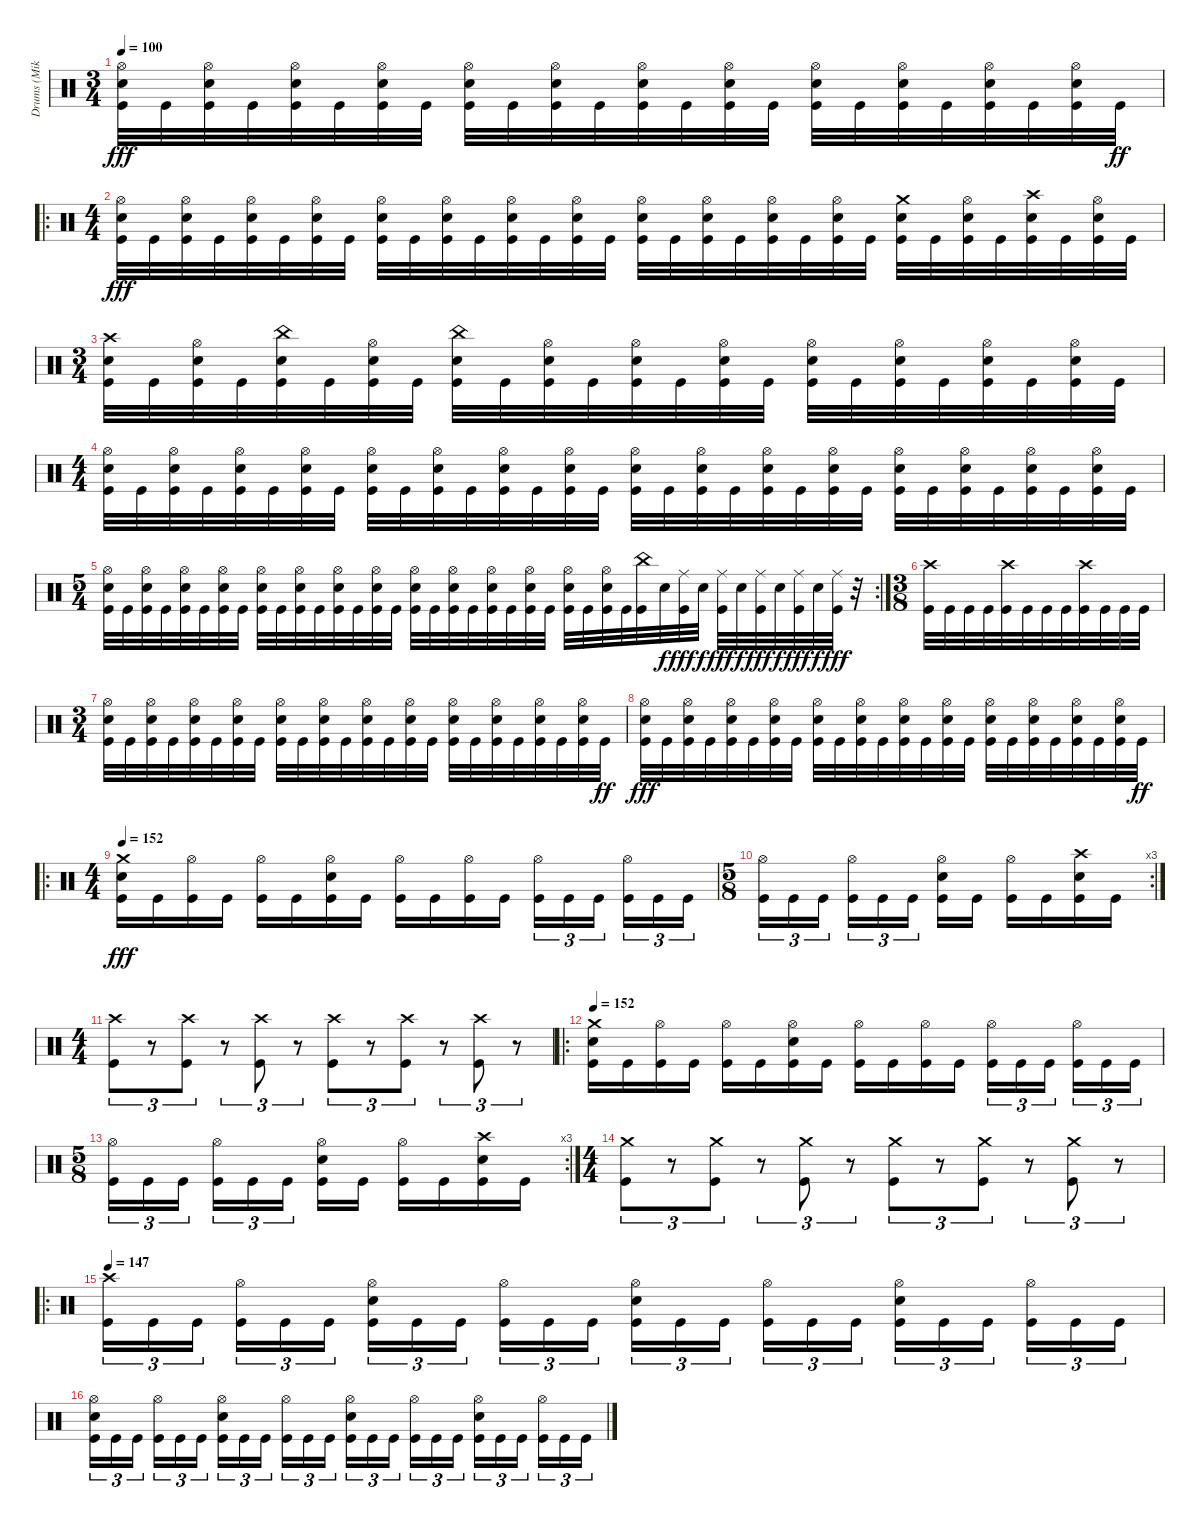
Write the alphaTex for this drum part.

\track ("Drums (Mike)" "Drums (Mik") {instrument percussion}
\staff {score}
\articulation defaults
\ts (3 4)
\tempo 100
\clef neutral
\ks c
("Hi-Hat (open)" "Electric Snare (hit)" "Kick (hit)").32{dy fff} "Kick (hit)".32 ("Hi-Hat (open)" "Electric Snare (hit)" "Kick (hit)").32 "Kick (hit)".32 ("Hi-Hat (open)" "Electric Snare (hit)" "Kick (hit)").32 "Kick (hit)".32 ("Hi-Hat (open)" "Electric Snare (hit)" "Kick (hit)").32 "Kick (hit)".32 ("Hi-Hat (open)" "Electric Snare (hit)" "Kick (hit)").32 "Kick (hit)".32 ("Hi-Hat (open)" "Electric Snare (hit)" "Kick (hit)").32 "Kick (hit)".32 ("Hi-Hat (open)" "Electric Snare (hit)" "Kick (hit)").32 "Kick (hit)".32 ("Hi-Hat (open)" "Electric Snare (hit)" "Kick (hit)").32 "Kick (hit)".32 ("Hi-Hat (open)" "Electric Snare (hit)" "Kick (hit)").32 "Kick (hit)".32 ("Hi-Hat (open)" "Electric Snare (hit)" "Kick (hit)").32 "Kick (hit)".32 ("Hi-Hat (open)" "Electric Snare (hit)" "Kick (hit)").32 "Kick (hit)".32 ("Hi-Hat (open)" "Electric Snare (hit)" "Kick (hit)").32 "Kick (hit)".32{dy ff} |
\ro
\ts (4 4)
("Hi-Hat (open)" "Electric Snare (hit)" "Kick (hit)").32{dy fff} "Kick (hit)".32 ("Hi-Hat (open)" "Electric Snare (hit)" "Kick (hit)").32 "Kick (hit)".32 ("Hi-Hat (open)" "Electric Snare (hit)" "Kick (hit)").32 "Kick (hit)".32 ("Hi-Hat (open)" "Electric Snare (hit)" "Kick (hit)").32 "Kick (hit)".32 ("Hi-Hat (open)" "Electric Snare (hit)" "Kick (hit)").32 "Kick (hit)".32 ("Hi-Hat (open)" "Electric Snare (hit)" "Kick (hit)").32 "Kick (hit)".32 ("Hi-Hat (open)" "Electric Snare (hit)" "Kick (hit)").32 "Kick (hit)".32 ("Hi-Hat (open)" "Electric Snare (hit)" "Kick (hit)").32 "Kick (hit)".32 ("Hi-Hat (open)" "Electric Snare (hit)" "Kick (hit)").32 "Kick (hit)".32 ("Hi-Hat (open)" "Electric Snare (hit)" "Kick (hit)").32 "Kick (hit)".32 ("Hi-Hat (open)" "Electric Snare (hit)" "Kick (hit)").32 "Kick (hit)".32 ("Hi-Hat (open)" "Electric Snare (hit)" "Kick (hit)").32 "Kick (hit)".32 ("Crash medium (hit)" "Electric Snare (hit)" "Kick (hit)").32 "Kick (hit)".32 ("Hi-Hat (open)" "Electric Snare (hit)" "Kick (hit)").32 "Kick (hit)".32 ("Crash high (hit)" "Electric Snare (hit)" "Kick (hit)").32 "Kick (hit)".32 ("Hi-Hat (open)" "Electric Snare (hit)" "Kick (hit)").32 "Kick (hit)".32 |
\ts (3 4)
("Crash high (hit)" "Electric Snare (hit)" "Kick (hit)").32 "Kick (hit)".32 ("Hi-Hat (open)" "Electric Snare (hit)" "Kick (hit)").32 "Kick (hit)".32 ("China (hit)" "Electric Snare (hit)" "Kick (hit)").32 "Kick (hit)".32 ("Hi-Hat (open)" "Electric Snare (hit)" "Kick (hit)").32 "Kick (hit)".32 ("China (hit)" "Electric Snare (hit)" "Kick (hit)").32 "Kick (hit)".32 ("Hi-Hat (open)" "Electric Snare (hit)" "Kick (hit)").32 "Kick (hit)".32 ("Hi-Hat (open)" "Electric Snare (hit)" "Kick (hit)").32 "Kick (hit)".32 ("Hi-Hat (open)" "Electric Snare (hit)" "Kick (hit)").32 "Kick (hit)".32 ("Hi-Hat (open)" "Electric Snare (hit)" "Kick (hit)").32 "Kick (hit)".32 ("Hi-Hat (open)" "Electric Snare (hit)" "Kick (hit)").32 "Kick (hit)".32 ("Hi-Hat (open)" "Electric Snare (hit)" "Kick (hit)").32 "Kick (hit)".32 ("Hi-Hat (open)" "Electric Snare (hit)" "Kick (hit)").32 "Kick (hit)".32 |
\ts (4 4)
("Hi-Hat (open)" "Electric Snare (hit)" "Kick (hit)").32 "Kick (hit)".32 ("Hi-Hat (open)" "Electric Snare (hit)" "Kick (hit)").32 "Kick (hit)".32 ("Hi-Hat (open)" "Electric Snare (hit)" "Kick (hit)").32 "Kick (hit)".32 ("Hi-Hat (open)" "Electric Snare (hit)" "Kick (hit)").32 "Kick (hit)".32 ("Hi-Hat (open)" "Electric Snare (hit)" "Kick (hit)").32 "Kick (hit)".32 ("Hi-Hat (open)" "Electric Snare (hit)" "Kick (hit)").32 "Kick (hit)".32 ("Hi-Hat (open)" "Electric Snare (hit)" "Kick (hit)").32 "Kick (hit)".32 ("Hi-Hat (open)" "Electric Snare (hit)" "Kick (hit)").32 "Kick (hit)".32 ("Hi-Hat (open)" "Electric Snare (hit)" "Kick (hit)").32 "Kick (hit)".32 ("Hi-Hat (open)" "Electric Snare (hit)" "Kick (hit)").32 "Kick (hit)".32 ("Hi-Hat (open)" "Electric Snare (hit)" "Kick (hit)").32 "Kick (hit)".32 ("Hi-Hat (open)" "Electric Snare (hit)" "Kick (hit)").32 "Kick (hit)".32 ("Hi-Hat (open)" "Electric Snare (hit)" "Kick (hit)").32 "Kick (hit)".32 ("Hi-Hat (open)" "Electric Snare (hit)" "Kick (hit)").32 "Kick (hit)".32 ("Hi-Hat (open)" "Electric Snare (hit)" "Kick (hit)").32 "Kick (hit)".32 ("Hi-Hat (open)" "Electric Snare (hit)" "Kick (hit)").32 "Kick (hit)".32 |
\rc 2
\ts (5 4)
("Hi-Hat (open)" "Electric Snare (hit)" "Kick (hit)").32 "Kick (hit)".32 ("Hi-Hat (open)" "Electric Snare (hit)" "Kick (hit)").32 "Kick (hit)".32 ("Hi-Hat (open)" "Electric Snare (hit)" "Kick (hit)").32 "Kick (hit)".32 ("Hi-Hat (open)" "Electric Snare (hit)" "Kick (hit)").32 "Kick (hit)".32 ("Hi-Hat (open)" "Electric Snare (hit)" "Kick (hit)").32 "Kick (hit)".32 ("Hi-Hat (open)" "Electric Snare (hit)" "Kick (hit)").32 "Kick (hit)".32 ("Hi-Hat (open)" "Electric Snare (hit)" "Kick (hit)").32 "Kick (hit)".32 ("Hi-Hat (open)" "Electric Snare (hit)" "Kick (hit)").32 "Kick (hit)".32 ("Hi-Hat (open)" "Electric Snare (hit)" "Kick (hit)").32 "Kick (hit)".32 ("Hi-Hat (open)" "Electric Snare (hit)" "Kick (hit)").32 "Kick (hit)".32 ("Hi-Hat (open)" "Electric Snare (hit)" "Kick (hit)").32 "Kick (hit)".32 ("Hi-Hat (open)" "Electric Snare (hit)" "Kick (hit)").32 "Kick (hit)".32 ("Hi-Hat (open)" "Electric Snare (hit)" "Kick (hit)").32 "Kick (hit)".32 ("Hi-Hat (open)" "Electric Snare (hit)" "Kick (hit)").32 "Kick (hit)".32 ("China (hit)" "Kick (hit)").32 "Electric Snare (hit)".32{dy f} ("Ride (middle)" "Kick (hit)").32{dy fff} "Electric Snare (hit)".32{dy f} ("Ride (middle)" "Kick (hit)").32{dy fff} "Electric Snare (hit)".32{dy f} ("Ride (middle)" "Kick (hit)").32{dy fff} "Electric Snare (hit)".32{dy f} ("Ride (middle)" "Kick (hit)").32{dy fff} "Electric Snare (hit)".32{dy f} ("Ride (middle)" "Kick (hit)").32{dy fff} r.32 |
\ts (3 8)
("Crash high (hit)" "Kick (hit)").32 "Kick (hit)".32 "Kick (hit)".32 "Kick (hit)".32 ("Crash high (hit)" "Kick (hit)").32 "Kick (hit)".32 "Kick (hit)".32 "Kick (hit)".32 ("Crash high (hit)" "Kick (hit)").32 "Kick (hit)".32 "Kick (hit)".32 "Kick (hit)".32 |
\ts (3 4)
("Hi-Hat (open)" "Electric Snare (hit)" "Kick (hit)").32 "Kick (hit)".32 ("Hi-Hat (open)" "Electric Snare (hit)" "Kick (hit)").32 "Kick (hit)".32 ("Hi-Hat (open)" "Electric Snare (hit)" "Kick (hit)").32 "Kick (hit)".32 ("Hi-Hat (open)" "Electric Snare (hit)" "Kick (hit)").32 "Kick (hit)".32 ("Hi-Hat (open)" "Electric Snare (hit)" "Kick (hit)").32 "Kick (hit)".32 ("Hi-Hat (open)" "Electric Snare (hit)" "Kick (hit)").32 "Kick (hit)".32 ("Hi-Hat (open)" "Electric Snare (hit)" "Kick (hit)").32 "Kick (hit)".32 ("Hi-Hat (open)" "Electric Snare (hit)" "Kick (hit)").32 "Kick (hit)".32 ("Hi-Hat (open)" "Electric Snare (hit)" "Kick (hit)").32 "Kick (hit)".32 ("Hi-Hat (open)" "Electric Snare (hit)" "Kick (hit)").32 "Kick (hit)".32 ("Hi-Hat (open)" "Electric Snare (hit)" "Kick (hit)").32 "Kick (hit)".32 ("Hi-Hat (open)" "Electric Snare (hit)" "Kick (hit)").32 "Kick (hit)".32{dy ff} |
("Hi-Hat (open)" "Electric Snare (hit)" "Kick (hit)").32{dy fff} "Kick (hit)".32 ("Hi-Hat (open)" "Electric Snare (hit)" "Kick (hit)").32 "Kick (hit)".32 ("Hi-Hat (open)" "Electric Snare (hit)" "Kick (hit)").32 "Kick (hit)".32 ("Hi-Hat (open)" "Electric Snare (hit)" "Kick (hit)").32 "Kick (hit)".32 ("Hi-Hat (open)" "Electric Snare (hit)" "Kick (hit)").32 "Kick (hit)".32 ("Hi-Hat (open)" "Electric Snare (hit)" "Kick (hit)").32 "Kick (hit)".32 ("Hi-Hat (open)" "Electric Snare (hit)" "Kick (hit)").32 "Kick (hit)".32 ("Hi-Hat (open)" "Electric Snare (hit)" "Kick (hit)").32 "Kick (hit)".32 ("Hi-Hat (open)" "Electric Snare (hit)" "Kick (hit)").32 "Kick (hit)".32 ("Hi-Hat (open)" "Electric Snare (hit)" "Kick (hit)").32 "Kick (hit)".32 ("Hi-Hat (open)" "Electric Snare (hit)" "Kick (hit)").32 "Kick (hit)".32 ("Hi-Hat (open)" "Electric Snare (hit)" "Kick (hit)").32 "Kick (hit)".32{dy ff} |
\ro
\ts (4 4)
\tempo 152
("Crash medium (hit)" "Electric Snare (hit)" "Kick (hit)").16{dy fff} "Kick (hit)".16 ("Hi-Hat (open)" "Kick (hit)").16 "Kick (hit)".16 ("Hi-Hat (open)" "Kick (hit)").16 "Kick (hit)".16 ("Hi-Hat (open)" "Electric Snare (hit)" "Kick (hit)").16 "Kick (hit)".16 ("Hi-Hat (open)" "Kick (hit)").16 "Kick (hit)".16 ("Hi-Hat (open)" "Kick (hit)").16 "Kick (hit)".16 ("Hi-Hat (open)" "Kick (hit)").16{tu (3 2)} "Kick (hit)".16{tu (3 2)} "Kick (hit)".16{tu (3 2)} ("Hi-Hat (open)" "Kick (hit)").16{tu (3 2)} "Kick (hit)".16{tu (3 2)} "Kick (hit)".16{tu (3 2)} |
\rc 3
\ts (5 8)
("Hi-Hat (open)" "Kick (hit)").16{tu (3 2)} "Kick (hit)".16{tu (3 2)} "Kick (hit)".16{tu (3 2)} ("Hi-Hat (open)" "Kick (hit)").16{tu (3 2)} "Kick (hit)".16{tu (3 2)} "Kick (hit)".16{tu (3 2)} ("Hi-Hat (open)" "Electric Snare (hit)" "Kick (hit)").16 "Kick (hit)".16 ("Hi-Hat (open)" "Kick (hit)").16 "Kick (hit)".16 ("Crash high (hit)" "Electric Snare (hit)" "Kick (hit)").16 "Kick (hit)".16 |
\ts (4 4)
("Crash high (hit)" "Kick (hit)").8{tu (3 2)} r.8{tu (3 2)} ("Crash high (hit)" "Kick (hit)").8{tu (3 2)} r.8{tu (3 2)} ("Crash high (hit)" "Kick (hit)").8{tu (3 2)} r.8{tu (3 2)} ("Crash high (hit)" "Kick (hit)").8{tu (3 2)} r.8{tu (3 2)} ("Crash high (hit)" "Kick (hit)").8{tu (3 2)} r.8{tu (3 2)} ("Crash high (hit)" "Kick (hit)").8{tu (3 2)} r.8{tu (3 2)} |
\ro
\tempo 152
("Crash medium (hit)" "Electric Snare (hit)" "Kick (hit)").16 "Kick (hit)".16 ("Hi-Hat (open)" "Kick (hit)").16 "Kick (hit)".16 ("Hi-Hat (open)" "Kick (hit)").16 "Kick (hit)".16 ("Hi-Hat (open)" "Electric Snare (hit)" "Kick (hit)").16 "Kick (hit)".16 ("Hi-Hat (open)" "Kick (hit)").16 "Kick (hit)".16 ("Hi-Hat (open)" "Kick (hit)").16 "Kick (hit)".16 ("Hi-Hat (open)" "Kick (hit)").16{tu (3 2)} "Kick (hit)".16{tu (3 2)} "Kick (hit)".16{tu (3 2)} ("Hi-Hat (open)" "Kick (hit)").16{tu (3 2)} "Kick (hit)".16{tu (3 2)} "Kick (hit)".16{tu (3 2)} |
\rc 3
\ts (5 8)
("Hi-Hat (open)" "Kick (hit)").16{tu (3 2)} "Kick (hit)".16{tu (3 2)} "Kick (hit)".16{tu (3 2)} ("Hi-Hat (open)" "Kick (hit)").16{tu (3 2)} "Kick (hit)".16{tu (3 2)} "Kick (hit)".16{tu (3 2)} ("Hi-Hat (open)" "Electric Snare (hit)" "Kick (hit)").16 "Kick (hit)".16 ("Hi-Hat (open)" "Kick (hit)").16 "Kick (hit)".16 ("Crash high (hit)" "Electric Snare (hit)" "Kick (hit)").16 "Kick (hit)".16 |
\ts (4 4)
("Crash medium (hit)" "Kick (hit)").8{tu (3 2)} r.8{tu (3 2)} ("Crash medium (hit)" "Kick (hit)").8{tu (3 2)} r.8{tu (3 2)} ("Crash medium (hit)" "Kick (hit)").8{tu (3 2)} r.8{tu (3 2)} ("Crash medium (hit)" "Kick (hit)").8{tu (3 2)} r.8{tu (3 2)} ("Crash medium (hit)" "Kick (hit)").8{tu (3 2)} r.8{tu (3 2)} ("Crash medium (hit)" "Kick (hit)").8{tu (3 2)} r.8{tu (3 2)} |
\ro
\tempo 147
("Crash high (hit)" "Kick (hit)").16{tu (3 2)} "Kick (hit)".16{tu (3 2)} "Kick (hit)".16{tu (3 2)} ("Hi-Hat (open)" "Kick (hit)").16{tu (3 2)} "Kick (hit)".16{tu (3 2)} "Kick (hit)".16{tu (3 2)} ("Hi-Hat (open)" "Electric Snare (hit)" "Kick (hit)").16{tu (3 2)} "Kick (hit)".16{tu (3 2)} "Kick (hit)".16{tu (3 2)} ("Hi-Hat (open)" "Kick (hit)").16{tu (3 2)} "Kick (hit)".16{tu (3 2)} "Kick (hit)".16{tu (3 2)} ("Hi-Hat (open)" "Electric Snare (hit)" "Kick (hit)").16{tu (3 2)} "Kick (hit)".16{tu (3 2)} "Kick (hit)".16{tu (3 2)} ("Hi-Hat (open)" "Kick (hit)").16{tu (3 2)} "Kick (hit)".16{tu (3 2)} "Kick (hit)".16{tu (3 2)} ("Hi-Hat (open)" "Electric Snare (hit)" "Kick (hit)").16{tu (3 2)} "Kick (hit)".16{tu (3 2)} "Kick (hit)".16{tu (3 2)} ("Hi-Hat (open)" "Kick (hit)").16{tu (3 2)} "Kick (hit)".16{tu (3 2)} "Kick (hit)".16{tu (3 2)} |
("Hi-Hat (open)" "Electric Snare (hit)" "Kick (hit)").16{tu (3 2)} "Kick (hit)".16{tu (3 2)} "Kick (hit)".16{tu (3 2)} ("Hi-Hat (open)" "Kick (hit)").16{tu (3 2)} "Kick (hit)".16{tu (3 2)} "Kick (hit)".16{tu (3 2)} ("Hi-Hat (open)" "Electric Snare (hit)" "Kick (hit)").16{tu (3 2)} "Kick (hit)".16{tu (3 2)} "Kick (hit)".16{tu (3 2)} ("Hi-Hat (open)" "Kick (hit)").16{tu (3 2)} "Kick (hit)".16{tu (3 2)} "Kick (hit)".16{tu (3 2)} ("Hi-Hat (open)" "Electric Snare (hit)" "Kick (hit)").16{tu (3 2)} "Kick (hit)".16{tu (3 2)} "Kick (hit)".16{tu (3 2)} ("Hi-Hat (open)" "Kick (hit)").16{tu (3 2)} "Kick (hit)".16{tu (3 2)} "Kick (hit)".16{tu (3 2)} ("Hi-Hat (open)" "Electric Snare (hit)" "Kick (hit)").16{tu (3 2)} "Kick (hit)".16{tu (3 2)} "Kick (hit)".16{tu (3 2)} ("Hi-Hat (open)" "Kick (hit)").16{tu (3 2)} "Kick (hit)".16{tu (3 2)} "Kick (hit)".16{tu (3 2)}
